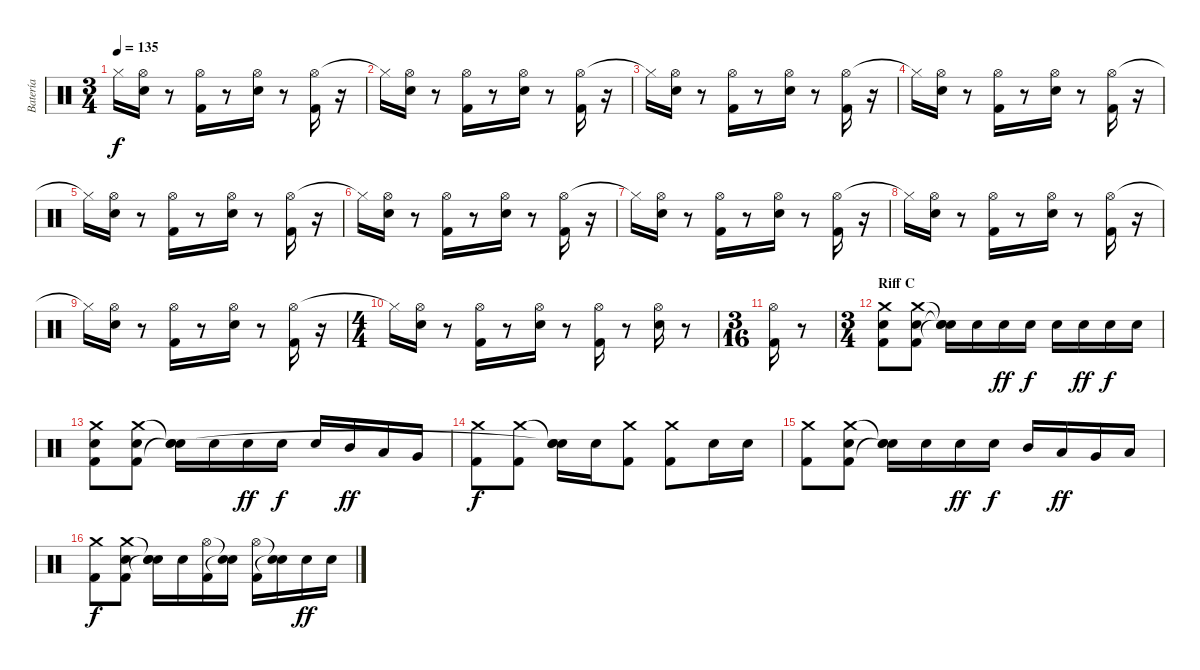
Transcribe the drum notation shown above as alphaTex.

\track ("Batería" "Batería") {instrument percussion}
\staff {score}
\articulation defaults
\ts (3 4)
\tempo 135
\clef neutral
\ks c "Hi-Hat (closed)"{t}.16{dy f}
("Hi-Hat (open)" "Snare (hit) 2").16 r.8 ("Hi-Hat (open)" "Kick (hit) 2").16 r.8 ("Hi-Hat (open)" "Snare (hit) 2").16 r.8 ("Hi-Hat (open)" "Kick (hit) 2").16 r.16 |
"Hi-Hat (closed)"{t}.16 ("Hi-Hat (open)" "Snare (hit) 2").16 r.8 ("Hi-Hat (open)" "Kick (hit) 2").16 r.8 ("Hi-Hat (open)" "Snare (hit) 2").16 r.8 ("Hi-Hat (open)" "Kick (hit) 2").16 r.16 |
"Hi-Hat (closed)"{t}.16 ("Hi-Hat (open)" "Snare (hit) 2").16 r.8 ("Hi-Hat (open)" "Kick (hit) 2").16 r.8 ("Hi-Hat (open)" "Snare (hit) 2").16 r.8 ("Hi-Hat (open)" "Kick (hit) 2").16 r.16 |
"Hi-Hat (closed)"{t}.16 ("Hi-Hat (open)" "Snare (hit) 2").16 r.8 ("Hi-Hat (open)" "Kick (hit) 2").16 r.8 ("Hi-Hat (open)" "Snare (hit) 2").16 r.8 ("Hi-Hat (open)" "Kick (hit) 2").16 r.16 |
"Hi-Hat (closed)"{t}.16 ("Hi-Hat (open)" "Snare (hit) 2").16 r.8 ("Hi-Hat (open)" "Kick (hit) 2").16 r.8 ("Hi-Hat (open)" "Snare (hit) 2").16 r.8 ("Hi-Hat (open)" "Kick (hit) 2").16 r.16 |
"Hi-Hat (closed)"{t}.16 ("Hi-Hat (open)" "Snare (hit) 2").16 r.8 ("Hi-Hat (open)" "Kick (hit) 2").16 r.8 ("Hi-Hat (open)" "Snare (hit) 2").16 r.8 ("Hi-Hat (open)" "Kick (hit) 2").16 r.16 |
"Hi-Hat (closed)"{t}.16 ("Hi-Hat (open)" "Snare (hit) 2").16 r.8 ("Hi-Hat (open)" "Kick (hit) 2").16 r.8 ("Hi-Hat (open)" "Snare (hit) 2").16 r.8 ("Hi-Hat (open)" "Kick (hit) 2").16 r.16 |
"Hi-Hat (closed)"{t}.16 ("Hi-Hat (open)" "Snare (hit) 2").16 r.8 ("Hi-Hat (open)" "Kick (hit) 2").16 r.8 ("Hi-Hat (open)" "Snare (hit) 2").16 r.8 ("Hi-Hat (open)" "Kick (hit) 2").16 r.16 |
"Hi-Hat (closed)"{t}.16 ("Hi-Hat (open)" "Snare (hit) 2").16 r.8 ("Hi-Hat (open)" "Kick (hit) 2").16 r.8 ("Hi-Hat (open)" "Snare (hit) 2").16 r.8 ("Hi-Hat (open)" "Kick (hit) 2").16 r.16 |
\ts (4 4)
"Hi-Hat (closed)"{t}.16 ("Hi-Hat (open)" "Snare (hit) 2").16 r.8 ("Hi-Hat (open)" "Kick (hit) 2").16 r.8 ("Hi-Hat (open)" "Snare (hit) 2").16 r.8 ("Hi-Hat (open)" "Kick (hit) 2").16 r.8 ("Hi-Hat (open)" "Snare (hit) 2").16 r.8 |
\ts (3 16)
("Hi-Hat (open)" "Kick (hit) 2").16 r.8 |
\ts (3 4)
\section ("" "Riff C")
("Crash medium (hit)" "Snare (hit) 2" "Kick (hit) 2").8 ("Crash medium (hit)" "Snare (hit) 2" "Kick (hit) 2").8 ("Snare (hit)"{t} "Snare (hit) 2"{t} "Snare (hit)"{t}).16 "Snare (hit) 2".16 "Snare (hit) 2".16{dy ff} "Snare (hit) 2".16{dy f} "Snare (hit) 2".16 "Snare (hit) 2".16{dy ff} "Snare (hit) 2".16{dy f} "Snare (hit) 2".16 |
("Crash medium (hit)" "Snare (hit) 2" "Kick (hit) 2").8 ("Crash medium (hit)" "Snare (hit) 2" "Kick (hit) 2").8 ("Snare (hit)"{t} "Snare (hit) 2" "Snare (hit)"{t}).16 "Snare (hit) 2".16 "Snare (hit) 2".16{dy ff} "Snare (hit) 2".16{dy f} "Snare (hit) 2".16 "Mid Tom (hit)".16{dy ff} "Low Tom (hit)".16 "Very Low Tom (hit)".16 |
("Crash medium (hit)" "Kick (hit) 2").8{dy f} ("Crash medium (hit)" "Kick (hit) 2").8 ("Snare (hit)"{t} "Snare (hit) 2" "Snare (hit)"{t}).16 "Snare (hit) 2".16 ("Crash medium (hit)" "Kick (hit) 2").8 ("Crash medium (hit)" "Kick (hit) 2").8 "Snare (hit) 2".16 "Snare (hit) 2".16 |
("Crash medium (hit)" "Kick (hit) 2").8 ("Crash medium (hit)" "Snare (hit) 2" "Kick (hit) 2").8 ("Snare (hit)"{t} "Snare (hit) 2" "Snare (hit)"{t}).16 "Snare (hit) 2".16 "Snare (hit) 2".16{dy ff} "Snare (hit) 2".16{dy f} "Mid Tom (hit)".16 "Low Tom (hit)".16{dy ff} "Very Low Tom (hit)".16 "Low Floor Tom (hit)".16 |
("Crash medium (hit)" "Kick (hit) 2").8{dy f} ("Crash medium (hit)" "Snare (hit) 2" "Kick (hit) 2").8 ("Snare (hit)"{t} "Snare (hit) 2" "Snare (hit)"{t}).16 "Snare (hit) 2".16 ("Hi-Hat (open)" "Kick (hit) 2").16 ("Snare (hit)"{t} "Snare (hit)"{t}).16 ("Hi-Hat (open)" "Kick (hit) 2").16 ("Snare (hit)"{t} "Snare (hit)"{t}).16 "Snare (hit) 2".16{dy ff} "Snare (hit) 2".16
